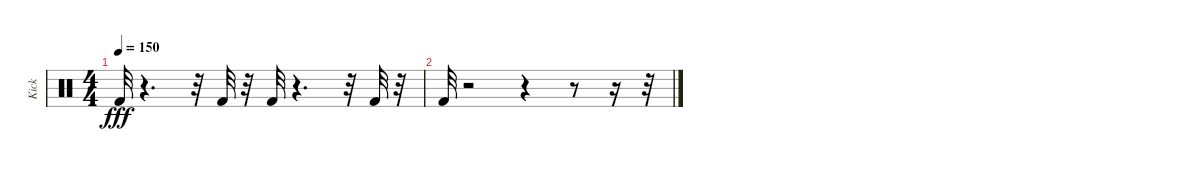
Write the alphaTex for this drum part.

\track ("Kick" "Kick") {instrument percussion}
\staff {score}
\articulation defaults
\ts (4 4)
\tempo 150
\clef neutral
\ks c "Kick (hit) 2".32{dy fff}
r.4{d} r.32 "Kick (hit) 2".32 r.32 "Kick (hit) 2".32 r.4{d} r.32 "Kick (hit) 2".32 r.32 |
"Kick (hit) 2".32 r.2 r.4 r.8 r.16 r.32
